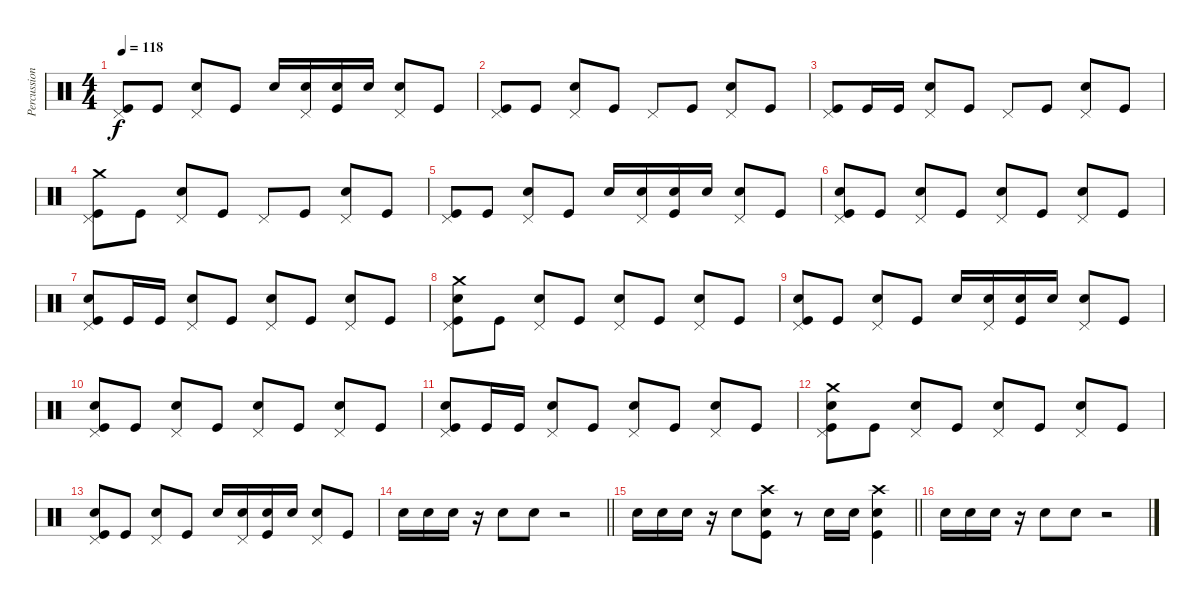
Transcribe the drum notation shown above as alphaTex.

\track ("Percussion" "Percussion") {instrument percussion}
\staff {score}
\articulation defaults
\ts (4 4)
\tempo 118
\clef neutral
\ks c
("Pedal Hi-Hat (hit)" "Kick (hit)").8{dy f} "Kick (hit)".8 ("Pedal Hi-Hat (hit)" "Electric Snare (hit)").8 "Kick (hit)".8 "Electric Snare (hit)".16 ("Pedal Hi-Hat (hit)" "Electric Snare (hit)").16 ("Electric Snare (hit)" "Kick (hit)").16 "Electric Snare (hit)".16 ("Pedal Hi-Hat (hit)" "Electric Snare (hit)").8 "Kick (hit)".8 |
("Pedal Hi-Hat (hit)" "Kick (hit)").8 "Kick (hit)".8 ("Pedal Hi-Hat (hit)" "Electric Snare (hit)").8 "Kick (hit)".8 "Pedal Hi-Hat (hit)".8 "Kick (hit)".8 ("Pedal Hi-Hat (hit)" "Electric Snare (hit)").8 "Kick (hit)".8 |
("Pedal Hi-Hat (hit)" "Kick (hit)").8 "Kick (hit)".16 "Kick (hit)".16 ("Pedal Hi-Hat (hit)" "Electric Snare (hit)").8 "Kick (hit)".8 "Pedal Hi-Hat (hit)".8 "Kick (hit)".8 ("Pedal Hi-Hat (hit)" "Electric Snare (hit)").8 "Kick (hit)".8 |
("Crash medium (hit)" "Pedal Hi-Hat (hit)" "Kick (hit)").8 "Kick (hit)".8 ("Pedal Hi-Hat (hit)" "Electric Snare (hit)").8 "Kick (hit)".8 "Pedal Hi-Hat (hit)".8 "Kick (hit)".8 ("Pedal Hi-Hat (hit)" "Electric Snare (hit)").8 "Kick (hit)".8 |
("Pedal Hi-Hat (hit)" "Kick (hit)").8 "Kick (hit)".8 ("Pedal Hi-Hat (hit)" "Electric Snare (hit)").8 "Kick (hit)".8 "Electric Snare (hit)".16 ("Pedal Hi-Hat (hit)" "Electric Snare (hit)").16 ("Electric Snare (hit)" "Kick (hit)").16 "Electric Snare (hit)".16 ("Pedal Hi-Hat (hit)" "Electric Snare (hit)").8 "Kick (hit)".8 |
("Pedal Hi-Hat (hit)" "Electric Snare (hit)" "Kick (hit)").8 "Kick (hit)".8 ("Pedal Hi-Hat (hit)" "Electric Snare (hit)").8 "Kick (hit)".8 ("Pedal Hi-Hat (hit)" "Electric Snare (hit)").8 "Kick (hit)".8 ("Pedal Hi-Hat (hit)" "Electric Snare (hit)").8 "Kick (hit)".8 |
("Pedal Hi-Hat (hit)" "Electric Snare (hit)" "Kick (hit)").8 "Kick (hit)".16 "Kick (hit)".16 ("Pedal Hi-Hat (hit)" "Electric Snare (hit)").8 "Kick (hit)".8 ("Pedal Hi-Hat (hit)" "Electric Snare (hit)").8 "Kick (hit)".8 ("Pedal Hi-Hat (hit)" "Electric Snare (hit)").8 "Kick (hit)".8 |
("Crash medium (hit)" "Pedal Hi-Hat (hit)" "Electric Snare (hit)" "Kick (hit)").8 "Kick (hit)".8 ("Pedal Hi-Hat (hit)" "Electric Snare (hit)").8 "Kick (hit)".8 ("Pedal Hi-Hat (hit)" "Electric Snare (hit)").8 "Kick (hit)".8 ("Pedal Hi-Hat (hit)" "Electric Snare (hit)").8 "Kick (hit)".8 |
("Pedal Hi-Hat (hit)" "Electric Snare (hit)" "Kick (hit)").8 "Kick (hit)".8 ("Pedal Hi-Hat (hit)" "Electric Snare (hit)").8 "Kick (hit)".8 "Electric Snare (hit)".16 ("Pedal Hi-Hat (hit)" "Electric Snare (hit)").16 ("Electric Snare (hit)" "Kick (hit)").16 "Electric Snare (hit)".16 ("Pedal Hi-Hat (hit)" "Electric Snare (hit)").8 "Kick (hit)".8 |
("Pedal Hi-Hat (hit)" "Electric Snare (hit)" "Kick (hit)").8 "Kick (hit)".8 ("Pedal Hi-Hat (hit)" "Electric Snare (hit)").8 "Kick (hit)".8 ("Pedal Hi-Hat (hit)" "Electric Snare (hit)").8 "Kick (hit)".8 ("Pedal Hi-Hat (hit)" "Electric Snare (hit)").8 "Kick (hit)".8 |
("Pedal Hi-Hat (hit)" "Electric Snare (hit)" "Kick (hit)").8 "Kick (hit)".16 "Kick (hit)".16 ("Pedal Hi-Hat (hit)" "Electric Snare (hit)").8 "Kick (hit)".8 ("Pedal Hi-Hat (hit)" "Electric Snare (hit)").8 "Kick (hit)".8 ("Pedal Hi-Hat (hit)" "Electric Snare (hit)").8 "Kick (hit)".8 |
("Crash medium (hit)" "Pedal Hi-Hat (hit)" "Electric Snare (hit)" "Kick (hit)").8 "Kick (hit)".8 ("Pedal Hi-Hat (hit)" "Electric Snare (hit)").8 "Kick (hit)".8 ("Pedal Hi-Hat (hit)" "Electric Snare (hit)").8 "Kick (hit)".8 ("Pedal Hi-Hat (hit)" "Electric Snare (hit)").8 "Kick (hit)".8 |
("Pedal Hi-Hat (hit)" "Electric Snare (hit)" "Kick (hit)").8 "Kick (hit)".8 ("Pedal Hi-Hat (hit)" "Electric Snare (hit)").8 "Kick (hit)".8 "Electric Snare (hit)".16 ("Pedal Hi-Hat (hit)" "Electric Snare (hit)").16 ("Electric Snare (hit)" "Kick (hit)").16 "Electric Snare (hit)".16 ("Pedal Hi-Hat (hit)" "Electric Snare (hit)").8 "Kick (hit)".8 |
\barLineRight lightlight "Electric Snare (hit)".16 "Electric Snare (hit)".16 "Electric Snare (hit)".16
r.16 "Electric Snare (hit)".8 "Electric Snare (hit)".8 r.2 |
\barLineRight lightlight "Electric Snare (hit)".16 "Electric Snare (hit)".16 "Electric Snare (hit)".16
r.16 "Electric Snare (hit)".8 ("Kick (hit)" "Crash high (hit)" "Electric Snare (hit)").8 r.8 "Electric Snare (hit)".16 "Electric Snare (hit)".16 ("Crash high (hit)" "Electric Snare (hit)" "Kick (hit)").4 |
"Electric Snare (hit)".16 "Electric Snare (hit)".16 "Electric Snare (hit)".16 r.16 "Electric Snare (hit)".8 "Electric Snare (hit)".8 r.2
